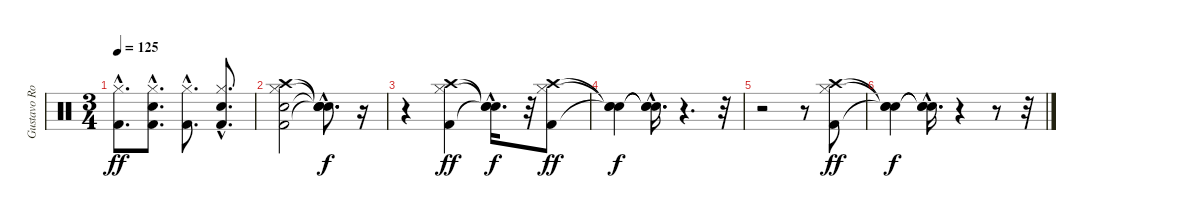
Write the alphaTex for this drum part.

\track ("Gustavo Rowek 2" "Gustavo Ro") {instrument percussion}
\staff {score}
\articulation defaults
\ts (3 4)
\tempo 125
\clef neutral
\ks c
("Kick (hit) 2"{hac} "Hi-Hat (closed)"{hac}).8{d dy ff} ("Kick (hit) 2"{hac} "Snare (hit) 2"{hac} "Hi-Hat (closed)"{hac}).8{d} ("Kick (hit) 2"{hac} "Hi-Hat (closed)"{hac}).8{d} ("Kick (hit) 2"{hac} "Snare (hit) 2"{hac} "Hi-Hat (closed)"{hac}).8{d} |
("Kick (hit) 2" "Snare (hit) 2" "Hi-Hat (closed)" "Crash high (hit)").2 ("Snare (hit)"{hac t} "Snare (hit)"{hac t} "Snare (hit)"{hac t} "Snare (hit)"{hac t}).8{d dy f} r.16 |
r.4 ("Kick (hit) 2" "Hi-Hat (closed)" "Crash high (hit)").4{dy ff} ("Snare (hit)"{hac t} "Snare (hit)"{hac t} "Snare (hit)"{hac t}).16{d dy f} r.32 ("Kick (hit) 2" "Hi-Hat (closed)" "Crash high (hit)").8{dy ff} |
("Snare (hit)"{t} "Snare (hit)"{t} "Snare (hit)"{t}).4{dy f} ("Snare (hit)"{hac t} "Snare (hit)"{hac t} "Snare (hit)"{hac t}).16{d} r.4{d} r.32 |
r.2 r.8 ("Kick (hit) 2" "Hi-Hat (closed)" "Crash high (hit)").8{dy ff} |
("Snare (hit)"{t} "Snare (hit)"{t} "Snare (hit)"{t}).4{dy f} ("Snare (hit)"{hac t} "Snare (hit)"{hac t} "Snare (hit)"{hac t}).16{d} r.4 r.8 r.32
